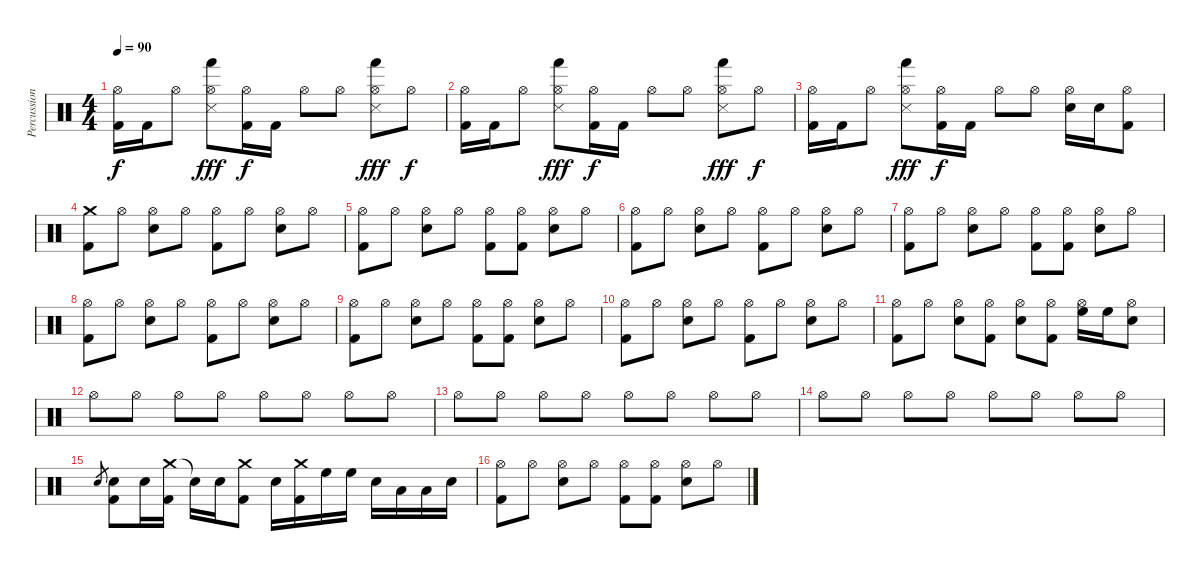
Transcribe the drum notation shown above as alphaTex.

\track ("Percussions" "Percussion") {instrument percussion}
\staff {score}
\articulation defaults
\ts (4 4)
\tempo 90
\clef neutral
\ks c
("Hi-Hat (open)" "Kick (hit) 2").16{dy f} "Kick (hit) 2".16 "Hi-Hat (open)".8 ("Hi-Hat (open)" "Hand (hit)" "Snare (side stick) 3").8{dy fff} ("Hi-Hat (open)" "Kick (hit) 2").16{dy f} "Kick (hit) 2".16 "Hi-Hat (open)".8 "Hi-Hat (open)".8 ("Hi-Hat (open)" "Hand (hit)" "Snare (side stick) 3").8{dy fff} "Hi-Hat (open)".8{dy f} |
("Hi-Hat (open)" "Kick (hit) 2").16 "Kick (hit) 2".16 "Hi-Hat (open)".8 ("Hi-Hat (open)" "Hand (hit)" "Snare (side stick) 3").8{dy fff} ("Hi-Hat (open)" "Kick (hit) 2").16{dy f} "Kick (hit) 2".16 "Hi-Hat (open)".8 "Hi-Hat (open)".8 ("Hi-Hat (open)" "Hand (hit)" "Snare (side stick) 3").8{dy fff} "Hi-Hat (open)".8{dy f} |
("Hi-Hat (open)" "Kick (hit) 2").16 "Kick (hit) 2".16 "Hi-Hat (open)".8 ("Hi-Hat (open)" "Hand (hit)" "Snare (side stick) 3").8{dy fff} ("Hi-Hat (open)" "Kick (hit) 2").16{dy f} "Kick (hit) 2".16 "Hi-Hat (open)".8 "Hi-Hat (open)".8 ("Hi-Hat (open)" "Snare (hit) 2").16 "Snare (hit) 2".16 ("Hi-Hat (open)" "Kick (hit) 2").8 |
("Crash medium (hit)" "Kick (hit) 2").8 "Hi-Hat (open)".8 ("Hi-Hat (open)" "Snare (hit) 2").8 "Hi-Hat (open)".8 ("Hi-Hat (open)" "Kick (hit) 2").8 "Hi-Hat (open)".8 ("Hi-Hat (open)" "Snare (hit) 2").8 "Hi-Hat (open)".8 |
("Hi-Hat (open)" "Kick (hit) 2").8 "Hi-Hat (open)".8 ("Hi-Hat (open)" "Snare (hit) 2").8 "Hi-Hat (open)".8 ("Hi-Hat (open)" "Kick (hit) 2").8 ("Hi-Hat (open)" "Kick (hit) 2").8 ("Hi-Hat (open)" "Snare (hit) 2").8 "Hi-Hat (open)".8 |
("Hi-Hat (open)" "Kick (hit) 2").8 "Hi-Hat (open)".8 ("Hi-Hat (open)" "Snare (hit) 2").8 "Hi-Hat (open)".8 ("Hi-Hat (open)" "Kick (hit) 2").8 "Hi-Hat (open)".8 ("Hi-Hat (open)" "Snare (hit) 2").8 "Hi-Hat (open)".8 |
("Hi-Hat (open)" "Kick (hit) 2").8 "Hi-Hat (open)".8 ("Hi-Hat (open)" "Snare (hit) 2").8 "Hi-Hat (open)".8 ("Hi-Hat (open)" "Kick (hit) 2").8 ("Hi-Hat (open)" "Kick (hit) 2").8 ("Hi-Hat (open)" "Snare (hit) 2").8 "Hi-Hat (open)".8 |
("Hi-Hat (open)" "Kick (hit) 2").8 "Hi-Hat (open)".8 ("Hi-Hat (open)" "Snare (hit) 2").8 "Hi-Hat (open)".8 ("Hi-Hat (open)" "Kick (hit) 2").8 "Hi-Hat (open)".8 ("Hi-Hat (open)" "Snare (hit) 2").8 "Hi-Hat (open)".8 |
("Hi-Hat (open)" "Kick (hit) 2").8 "Hi-Hat (open)".8 ("Hi-Hat (open)" "Snare (hit) 2").8 "Hi-Hat (open)".8 ("Hi-Hat (open)" "Kick (hit) 2").8 ("Hi-Hat (open)" "Kick (hit) 2").8 ("Hi-Hat (open)" "Snare (hit) 2").8 "Hi-Hat (open)".8 |
("Hi-Hat (open)" "Kick (hit) 2").8 "Hi-Hat (open)".8 ("Hi-Hat (open)" "Snare (hit) 2").8 "Hi-Hat (open)".8 ("Hi-Hat (open)" "Kick (hit) 2").8 "Hi-Hat (open)".8 ("Hi-Hat (open)" "Snare (hit) 2").8 "Hi-Hat (open)".8 |
("Hi-Hat (open)" "Kick (hit) 2").8 "Hi-Hat (open)".8 ("Hi-Hat (open)" "Snare (hit) 2").8 ("Hi-Hat (open)" "Kick (hit) 2").8 ("Hi-Hat (open)" "Snare (hit) 2").8 ("Hi-Hat (open)" "Kick (hit) 2").8 ("Hi-Hat (open)" "High Floor Tom (hit)").16 "High Floor Tom (hit)".16 ("Hi-Hat (open)" "Snare (hit) 2").8 |
"Hi-Hat (open)".8 "Hi-Hat (open)".8 "Hi-Hat (open)".8 "Hi-Hat (open)".8 "Hi-Hat (open)".8 "Hi-Hat (open)".8 "Hi-Hat (open)".8 "Hi-Hat (open)".8 |
"Hi-Hat (open)".8 "Hi-Hat (open)".8 "Hi-Hat (open)".8 "Hi-Hat (open)".8 "Hi-Hat (open)".8 "Hi-Hat (open)".8 "Hi-Hat (open)".8 "Hi-Hat (open)".8 |
"Hi-Hat (open)".8 "Hi-Hat (open)".8 "Hi-Hat (open)".8 "Hi-Hat (open)".8 "Hi-Hat (open)".8 "Hi-Hat (open)".8 "Hi-Hat (open)".8 "Hi-Hat (open)".8 |
"Snare (hit) 2".8{gr} ("Snare (hit) 2" "Kick (hit) 2").8 "Snare (hit) 2".16 ("Crash medium (hit)" "Kick (hit) 2").16 "Snare (hit)"{t}.16 "Snare (hit) 2".16 ("Crash medium (hit)" "Kick (hit) 2").8 "Snare (hit) 2".16 ("Crash medium (hit)" "Kick (hit) 2").16 "High Floor Tom (hit)".16 "High Floor Tom (hit)".16 "Snare (hit) 2".16 "Low Tom (hit)".16 "Low Tom (hit)".16 "Snare (hit) 2".16 |
("Hi-Hat (open)" "Kick (hit) 2").8 "Hi-Hat (open)".8 ("Hi-Hat (open)" "Snare (hit) 2").8 "Hi-Hat (open)".8 ("Hi-Hat (open)" "Kick (hit) 2").8 ("Hi-Hat (open)" "Kick (hit) 2").8 ("Hi-Hat (open)" "Snare (hit) 2").8 "Hi-Hat (open)".8
